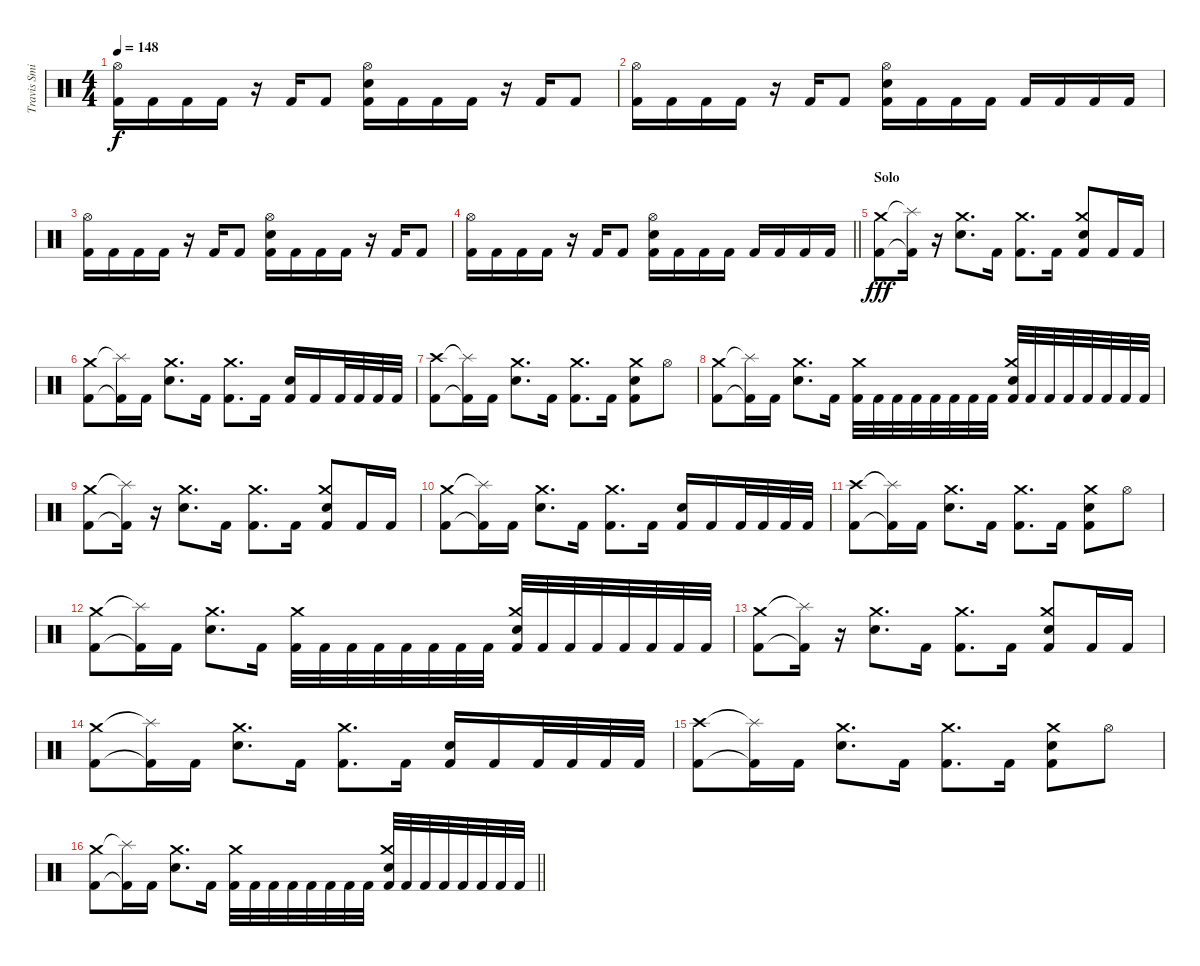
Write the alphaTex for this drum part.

\track ("Travis Smith" "Travis Smi") {instrument percussion}
\staff {score}
\articulation defaults
\ts (4 4)
\tempo 148
\clef neutral
\ks c
("Hi-Hat (open)" "Kick (hit) 2").16{dy f} "Kick (hit) 2".16 "Kick (hit) 2".16 "Kick (hit) 2".16 r.16 "Kick (hit) 2".16 "Kick (hit) 2".8 ("Hi-Hat (open)" "Electric Snare (hit)" "Kick (hit) 2").16 "Kick (hit) 2".16 "Kick (hit) 2".16 "Kick (hit) 2".16 r.16 "Kick (hit) 2".16 "Kick (hit) 2".8 |
("Hi-Hat (open)" "Kick (hit) 2").16 "Kick (hit) 2".16 "Kick (hit) 2".16 "Kick (hit) 2".16 r.16 "Kick (hit) 2".16 "Kick (hit) 2".8 ("Hi-Hat (open)" "Electric Snare (hit)" "Kick (hit) 2").16 "Kick (hit) 2".16 "Kick (hit) 2".16 "Kick (hit) 2".16 "Kick (hit) 2".16 "Kick (hit) 2".16 "Kick (hit) 2".16 "Kick (hit) 2".16 |
("Hi-Hat (open)" "Kick (hit) 2").16 "Kick (hit) 2".16 "Kick (hit) 2".16 "Kick (hit) 2".16 r.16 "Kick (hit) 2".16 "Kick (hit) 2".8 ("Hi-Hat (open)" "Electric Snare (hit)" "Kick (hit) 2").16 "Kick (hit) 2".16 "Kick (hit) 2".16 "Kick (hit) 2".16 r.16 "Kick (hit) 2".16 "Kick (hit) 2".8 |
\barLineRight lightlight
("Hi-Hat (open)" "Kick (hit) 2").16 "Kick (hit) 2".16 "Kick (hit) 2".16 "Kick (hit) 2".16 r.16 "Kick (hit) 2".16 "Kick (hit) 2".8 ("Hi-Hat (open)" "Electric Snare (hit)" "Kick (hit) 2").16 "Kick (hit) 2".16 "Kick (hit) 2".16 "Kick (hit) 2".16 "Kick (hit) 2".16 "Kick (hit) 2".16 "Kick (hit) 2".16 "Kick (hit) 2".16 |
\section ("" "Solo")
("Crash medium (hit)" "Kick (hit) 2").8{dy fff} ("Splash (hit)"{t} "Kick (hit) 2"{t}).16 r.16 ("Crash medium (hit)" "Snare (hit) 2").8{d} "Kick (hit) 2".16 ("Crash medium (hit)" "Kick (hit) 2").8{d} "Kick (hit) 2".16 ("Crash medium (hit)" "Snare (hit) 2" "Kick (hit) 2").8 "Kick (hit) 2".16 "Kick (hit) 2".16 |
("Crash medium (hit)" "Kick (hit) 2").8 ("Splash (hit)"{t} "Kick (hit) 2"{t}).16 "Kick (hit) 2".16 ("Crash medium (hit)" "Snare (hit) 2").8{d} "Kick (hit) 2".16 ("Crash medium (hit)" "Kick (hit) 2").8{d} "Kick (hit) 2".16 ("Snare (hit) 2" "Kick (hit) 2").16 "Kick (hit) 2".16 "Kick (hit) 2".32 "Kick (hit) 2".32 "Kick (hit) 2".32 "Kick (hit) 2".32 |
("Crash high (hit)" "Kick (hit) 2").8 ("Splash (hit)"{t} "Kick (hit) 2"{t}).16 "Kick (hit) 2".16 ("Crash medium (hit)" "Snare (hit) 2").8{d} "Kick (hit) 2".16 ("Crash medium (hit)" "Kick (hit) 2").8{d} "Kick (hit) 2".16 ("Crash medium (hit)" "Snare (hit) 2" "Kick (hit) 2").8 "Hi-Hat (open)".8 |
("Crash medium (hit)" "Kick (hit) 2").8 ("Splash (hit)"{t} "Kick (hit) 2"{t}).16 "Kick (hit) 2".16 ("Crash medium (hit)" "Snare (hit) 2").8{d} "Kick (hit) 2".16 ("Crash medium (hit)" "Kick (hit) 2").32 "Kick (hit) 2".32 "Kick (hit) 2".32 "Kick (hit) 2".32 "Kick (hit) 2".32 "Kick (hit) 2".32 "Kick (hit) 2".32 "Kick (hit) 2".32 ("Crash medium (hit)" "Snare (hit) 2" "Kick (hit) 2").32 "Kick (hit) 2".32 "Kick (hit) 2".32 "Kick (hit) 2".32 "Kick (hit) 2".32 "Kick (hit) 2".32 "Kick (hit) 2".32 "Kick (hit) 2".32 |
("Crash medium (hit)" "Kick (hit) 2").8 ("Splash (hit)"{t} "Kick (hit) 2"{t}).16 r.16 ("Crash medium (hit)" "Snare (hit) 2").8{d} "Kick (hit) 2".16 ("Crash medium (hit)" "Kick (hit) 2").8{d} "Kick (hit) 2".16 ("Crash medium (hit)" "Snare (hit) 2" "Kick (hit) 2").8 "Kick (hit) 2".16 "Kick (hit) 2".16 |
("Crash medium (hit)" "Kick (hit) 2").8 ("Splash (hit)"{t} "Kick (hit) 2"{t}).16 "Kick (hit) 2".16 ("Crash medium (hit)" "Snare (hit) 2").8{d} "Kick (hit) 2".16 ("Crash medium (hit)" "Kick (hit) 2").8{d} "Kick (hit) 2".16 ("Snare (hit) 2" "Kick (hit) 2").16 "Kick (hit) 2".16 "Kick (hit) 2".32 "Kick (hit) 2".32 "Kick (hit) 2".32 "Kick (hit) 2".32 |
("Crash high (hit)" "Kick (hit) 2").8 ("Splash (hit)"{t} "Kick (hit) 2"{t}).16 "Kick (hit) 2".16 ("Crash medium (hit)" "Snare (hit) 2").8{d} "Kick (hit) 2".16 ("Crash medium (hit)" "Kick (hit) 2").8{d} "Kick (hit) 2".16 ("Crash medium (hit)" "Snare (hit) 2" "Kick (hit) 2").8 "Hi-Hat (open)".8 |
("Crash medium (hit)" "Kick (hit) 2").8 ("Splash (hit)"{t} "Kick (hit) 2"{t}).16 "Kick (hit) 2".16 ("Crash medium (hit)" "Snare (hit) 2").8{d} "Kick (hit) 2".16 ("Crash medium (hit)" "Kick (hit) 2").32 "Kick (hit) 2".32 "Kick (hit) 2".32 "Kick (hit) 2".32 "Kick (hit) 2".32 "Kick (hit) 2".32 "Kick (hit) 2".32 "Kick (hit) 2".32 ("Crash medium (hit)" "Snare (hit) 2" "Kick (hit) 2").32 "Kick (hit) 2".32 "Kick (hit) 2".32 "Kick (hit) 2".32 "Kick (hit) 2".32 "Kick (hit) 2".32 "Kick (hit) 2".32 "Kick (hit) 2".32 |
("Crash medium (hit)" "Kick (hit) 2").8 ("Splash (hit)"{t} "Kick (hit) 2"{t}).16 r.16 ("Crash medium (hit)" "Snare (hit) 2").8{d} "Kick (hit) 2".16 ("Crash medium (hit)" "Kick (hit) 2").8{d} "Kick (hit) 2".16 ("Crash medium (hit)" "Snare (hit) 2" "Kick (hit) 2").8 "Kick (hit) 2".16 "Kick (hit) 2".16 |
("Crash medium (hit)" "Kick (hit) 2").8 ("Splash (hit)"{t} "Kick (hit) 2"{t}).16 "Kick (hit) 2".16 ("Crash medium (hit)" "Snare (hit) 2").8{d} "Kick (hit) 2".16 ("Crash medium (hit)" "Kick (hit) 2").8{d} "Kick (hit) 2".16 ("Snare (hit) 2" "Kick (hit) 2").16 "Kick (hit) 2".16 "Kick (hit) 2".32 "Kick (hit) 2".32 "Kick (hit) 2".32 "Kick (hit) 2".32 |
("Crash high (hit)" "Kick (hit) 2").8 ("Splash (hit)"{t} "Kick (hit) 2"{t}).16 "Kick (hit) 2".16 ("Crash medium (hit)" "Snare (hit) 2").8{d} "Kick (hit) 2".16 ("Crash medium (hit)" "Kick (hit) 2").8{d} "Kick (hit) 2".16 ("Crash medium (hit)" "Snare (hit) 2" "Kick (hit) 2").8 "Hi-Hat (open)".8 |
\barLineRight lightlight
("Crash medium (hit)" "Kick (hit) 2").8 ("Splash (hit)"{t} "Kick (hit) 2"{t}).16 "Kick (hit) 2".16 ("Crash medium (hit)" "Snare (hit) 2").8{d} "Kick (hit) 2".16 ("Crash medium (hit)" "Kick (hit) 2").32 "Kick (hit) 2".32 "Kick (hit) 2".32 "Kick (hit) 2".32 "Kick (hit) 2".32 "Kick (hit) 2".32 "Kick (hit) 2".32 "Kick (hit) 2".32 ("Crash medium (hit)" "Snare (hit) 2" "Kick (hit) 2").32 "Kick (hit) 2".32 "Kick (hit) 2".32 "Kick (hit) 2".32 "Kick (hit) 2".32 "Kick (hit) 2".32 "Kick (hit) 2".32 "Kick (hit) 2".32
